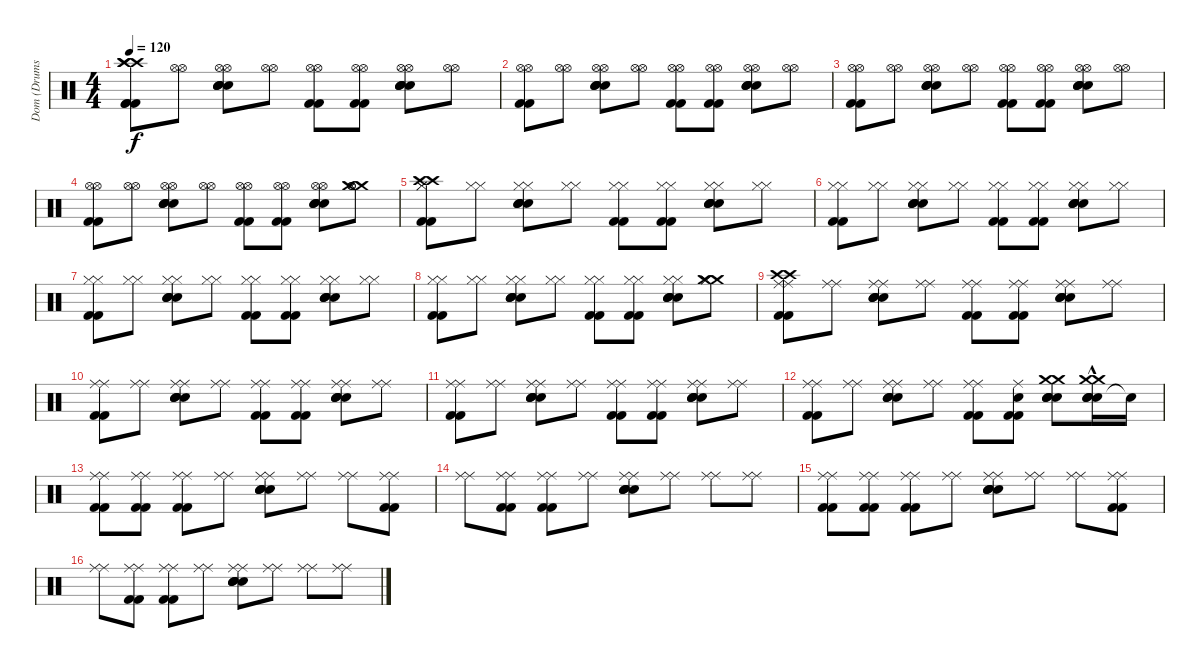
\track ("Dom (Drums)" "Dom (Drums") {instrument percussion}
\staff {score}
\articulation defaults
\ts (4 4)
\tempo 120
\clef neutral
\ks c
("Crash high (hit)" "Crash high (hit)" "Crash high (hit)" "Kick (hit) 2" "Kick (hit) 2" "Kick (hit) 2").8{dy f} ("Hi-Hat (open)" "Hi-Hat (open)").8 ("Hi-Hat (open)" "Snare (hit) 2" "Snare (hit) 2" "Electric Snare (hit)" "Electric Snare (hit)" "Hi-Hat (open)").8 ("Hi-Hat (open)" "Hi-Hat (open)").8 ("Kick (hit) 2" "Kick (hit) 2" "Hi-Hat (open)" "Hi-Hat (open)").8 ("Kick (hit) 2" "Kick (hit) 2" "Hi-Hat (open)" "Hi-Hat (open)").8 ("Electric Snare (hit)" "Electric Snare (hit)" "Snare (hit) 2" "Snare (hit) 2" "Hi-Hat (open)" "Hi-Hat (open)").8 ("Hi-Hat (open)" "Hi-Hat (open)").8 |
("Kick (hit) 2" "Kick (hit) 2" "Hi-Hat (open)" "Hi-Hat (open)").8 ("Hi-Hat (open)" "Hi-Hat (open)").8 ("Snare (hit) 2" "Snare (hit) 2" "Electric Snare (hit)" "Electric Snare (hit)" "Hi-Hat (open)" "Hi-Hat (open)").8 ("Hi-Hat (open)" "Hi-Hat (open)").8 ("Kick (hit) 2" "Kick (hit) 2" "Hi-Hat (open)" "Hi-Hat (open)").8 ("Kick (hit) 2" "Kick (hit) 2" "Hi-Hat (open)" "Hi-Hat (open)").8 ("Electric Snare (hit)" "Electric Snare (hit)" "Snare (hit) 2" "Snare (hit) 2" "Hi-Hat (open)" "Hi-Hat (open)").8 ("Hi-Hat (open)" "Hi-Hat (open)").8 |
("Kick (hit) 2" "Kick (hit) 2" "Hi-Hat (open)" "Hi-Hat (open)").8 ("Hi-Hat (open)" "Hi-Hat (open)").8 ("Snare (hit) 2" "Snare (hit) 2" "Electric Snare (hit)" "Electric Snare (hit)" "Hi-Hat (open)" "Hi-Hat (open)").8 ("Hi-Hat (open)" "Hi-Hat (open)").8 ("Kick (hit) 2" "Kick (hit) 2" "Hi-Hat (open)" "Hi-Hat (open)").8 ("Kick (hit) 2" "Kick (hit) 2" "Hi-Hat (open)" "Hi-Hat (open)").8 ("Electric Snare (hit)" "Electric Snare (hit)" "Snare (hit) 2" "Snare (hit) 2" "Hi-Hat (open)" "Hi-Hat (open)").8 ("Hi-Hat (open)" "Hi-Hat (open)").8 |
("Kick (hit) 2" "Kick (hit) 2" "Hi-Hat (open)" "Hi-Hat (open)").8 ("Hi-Hat (open)" "Hi-Hat (open)").8 ("Snare (hit) 2" "Snare (hit) 2" "Electric Snare (hit)" "Electric Snare (hit)" "Hi-Hat (open)" "Hi-Hat (open)").8 ("Hi-Hat (open)" "Hi-Hat (open)").8 ("Kick (hit) 2" "Kick (hit) 2" "Hi-Hat (open)" "Hi-Hat (open)").8 ("Kick (hit) 2" "Kick (hit) 2" "Hi-Hat (open)" "Hi-Hat (open)").8 ("Electric Snare (hit)" "Electric Snare (hit)" "Snare (hit) 2" "Snare (hit) 2" "Hi-Hat (open)" "Hi-Hat (open)").8 ("Crash medium (hit)" "Crash medium (hit)" "Hi-Hat (open)" "Hi-Hat (open)").8 |
("Crash high (hit)" "Crash high (hit)" "Kick (hit) 2" "Kick (hit) 2" "Hi-Hat (closed)" "Hi-Hat (closed)").8 ("Hi-Hat (closed)" "Hi-Hat (closed)").8 ("Snare (hit) 2" "Snare (hit) 2" "Electric Snare (hit)" "Electric Snare (hit)" "Hi-Hat (closed)" "Hi-Hat (closed)").8 ("Hi-Hat (closed)" "Hi-Hat (closed)").8 ("Kick (hit) 2" "Kick (hit) 2" "Hi-Hat (closed)" "Hi-Hat (closed)").8 ("Kick (hit) 2" "Kick (hit) 2" "Hi-Hat (closed)" "Hi-Hat (closed)").8 ("Snare (hit) 2" "Snare (hit) 2" "Electric Snare (hit)" "Electric Snare (hit)" "Hi-Hat (closed)" "Hi-Hat (closed)").8 ("Hi-Hat (closed)" "Hi-Hat (closed)").8 |
("Kick (hit) 2" "Kick (hit) 2" "Hi-Hat (closed)" "Hi-Hat (closed)").8 ("Hi-Hat (closed)" "Hi-Hat (closed)").8 ("Snare (hit) 2" "Snare (hit) 2" "Electric Snare (hit)" "Electric Snare (hit)" "Hi-Hat (closed)" "Hi-Hat (closed)").8 ("Hi-Hat (closed)" "Hi-Hat (closed)").8 ("Kick (hit) 2" "Kick (hit) 2" "Hi-Hat (closed)" "Hi-Hat (closed)").8 ("Kick (hit) 2" "Kick (hit) 2" "Hi-Hat (closed)" "Hi-Hat (closed)").8 ("Snare (hit) 2" "Snare (hit) 2" "Electric Snare (hit)" "Electric Snare (hit)" "Hi-Hat (closed)" "Hi-Hat (closed)").8 ("Hi-Hat (closed)" "Hi-Hat (closed)").8 |
("Kick (hit) 2" "Kick (hit) 2" "Hi-Hat (closed)" "Hi-Hat (closed)").8 ("Hi-Hat (closed)" "Hi-Hat (closed)").8 ("Snare (hit) 2" "Snare (hit) 2" "Electric Snare (hit)" "Electric Snare (hit)" "Hi-Hat (closed)" "Hi-Hat (closed)").8 ("Hi-Hat (closed)" "Hi-Hat (closed)").8 ("Kick (hit) 2" "Kick (hit) 2" "Hi-Hat (closed)" "Hi-Hat (closed)").8 ("Kick (hit) 2" "Kick (hit) 2" "Hi-Hat (closed)" "Hi-Hat (closed)").8 ("Snare (hit) 2" "Snare (hit) 2" "Electric Snare (hit)" "Electric Snare (hit)" "Hi-Hat (closed)" "Hi-Hat (closed)").8 ("Hi-Hat (closed)" "Hi-Hat (closed)").8 |
("Kick (hit) 2" "Kick (hit) 2" "Hi-Hat (closed)" "Hi-Hat (closed)").8 ("Hi-Hat (closed)" "Hi-Hat (closed)").8 ("Snare (hit) 2" "Snare (hit) 2" "Electric Snare (hit)" "Electric Snare (hit)" "Hi-Hat (closed)" "Hi-Hat (closed)").8 ("Hi-Hat (closed)" "Hi-Hat (closed)").8 ("Kick (hit) 2" "Kick (hit) 2" "Hi-Hat (closed)" "Hi-Hat (closed)").8 ("Kick (hit) 2" "Kick (hit) 2" "Hi-Hat (closed)" "Hi-Hat (closed)").8 ("Snare (hit) 2" "Snare (hit) 2" "Electric Snare (hit)" "Electric Snare (hit)" "Hi-Hat (closed)" "Hi-Hat (closed)").8 ("Crash medium (hit)" "Crash medium (hit)" "Hi-Hat (closed)" "Hi-Hat (closed)").8 |
("Crash high (hit)" "Kick (hit) 2" "Kick (hit) 2" "Crash high (hit)" "Ride (middle)" "Ride (middle)").8 ("Ride (middle)" "Ride (middle)").8 ("Snare (hit) 2" "Snare (hit) 2" "Electric Snare (hit)" "Electric Snare (hit)" "Ride (middle)" "Ride (middle)").8 ("Ride (middle)" "Ride (middle)").8 ("Kick (hit) 2" "Kick (hit) 2" "Ride (middle)" "Ride (middle)").8 ("Kick (hit) 2" "Kick (hit) 2" "Ride (middle)" "Ride (middle)").8 ("Snare (hit) 2" "Snare (hit) 2" "Electric Snare (hit)" "Electric Snare (hit)" "Ride (middle)" "Ride (middle)").8 ("Ride (middle)" "Ride (middle)").8 |
("Kick (hit) 2" "Kick (hit) 2" "Ride (middle)" "Ride (middle)").8 ("Ride (middle)" "Ride (middle)").8 ("Snare (hit) 2" "Snare (hit) 2" "Electric Snare (hit)" "Electric Snare (hit)" "Ride (middle)" "Ride (middle)").8 ("Ride (middle)" "Ride (middle)").8 ("Kick (hit) 2" "Kick (hit) 2" "Ride (middle)" "Ride (middle)").8 ("Kick (hit) 2" "Kick (hit) 2" "Ride (middle)" "Ride (middle)").8 ("Snare (hit) 2" "Snare (hit) 2" "Electric Snare (hit)" "Electric Snare (hit)" "Ride (middle)" "Ride (middle)").8 ("Ride (middle)" "Ride (middle)").8 |
("Kick (hit) 2" "Kick (hit) 2" "Ride (middle)" "Ride (middle)").8 ("Ride (middle)" "Ride (middle)").8 ("Snare (hit) 2" "Snare (hit) 2" "Electric Snare (hit)" "Electric Snare (hit)" "Ride (middle)" "Ride (middle)").8 ("Ride (middle)" "Ride (middle)").8 ("Kick (hit) 2" "Kick (hit) 2" "Ride (middle)" "Ride (middle)").8 ("Kick (hit) 2" "Kick (hit) 2" "Ride (middle)" "Ride (middle)").8 ("Snare (hit) 2" "Snare (hit) 2" "Electric Snare (hit)" "Electric Snare (hit)" "Ride (middle)" "Ride (middle)").8 ("Ride (middle)" "Ride (middle)").8 |
("Kick (hit) 2" "Kick (hit) 2" "Ride (middle)" "Ride (middle)").8 ("Ride (middle)" "Ride (middle)").8 ("Snare (hit) 2" "Snare (hit) 2" "Electric Snare (hit)" "Electric Snare (hit)" "Ride (middle)" "Ride (middle)").8 ("Ride (middle)" "Ride (middle)").8 ("Kick (hit) 2" "Kick (hit) 2" "Ride (middle)" "Ride (middle)").8 ("Kick (hit) 2" "Kick (hit) 2" "Ride (middle)" "Snare (hit)").8 ("Snare (hit) 2" "Snare (hit) 2" "Electric Snare (hit)" "Electric Snare (hit)" "Crash medium (hit)" "Crash medium (hit)").8 ("Snare (hit) 2" "Snare (hit) 2" "Electric Snare (hit)" "Electric Snare (hit)" "Crash medium (hit)" "Crash medium (hit)"{hac}).16 "Snare (hit)"{t}.16 |
("Kick (hit) 2" "Kick (hit) 2" "Ride (middle)" "Ride (middle)").8 ("Kick (hit) 2" "Kick (hit) 2" "Ride (middle)" "Ride (middle)").8 ("Kick (hit) 2" "Kick (hit) 2" "Ride (middle)" "Ride (middle)").8 ("Ride (middle)" "Ride (middle)").8 ("Electric Snare (hit)" "Electric Snare (hit)" "Snare (hit) 2" "Snare (hit) 2" "Ride (middle)" "Ride (middle)").8 ("Ride (middle)" "Ride (middle)").8 ("Ride (middle)" "Ride (middle)").8 ("Kick (hit) 2" "Kick (hit) 2" "Ride (middle)" "Ride (middle)").8 |
("Ride (middle)" "Ride (middle)").8 ("Kick (hit) 2" "Kick (hit) 2" "Ride (middle)" "Ride (middle)").8 ("Kick (hit) 2" "Kick (hit) 2" "Ride (middle)" "Ride (middle)").8 ("Ride (middle)" "Ride (middle)").8 ("Electric Snare (hit)" "Electric Snare (hit)" "Snare (hit) 2" "Snare (hit) 2" "Ride (middle)" "Ride (middle)").8 ("Ride (middle)" "Ride (middle)").8 ("Ride (middle)" "Ride (middle)").8 ("Ride (middle)" "Ride (middle)").8 |
("Kick (hit) 2" "Kick (hit) 2" "Ride (middle)" "Ride (middle)").8 ("Kick (hit) 2" "Kick (hit) 2" "Ride (middle)" "Ride (middle)").8 ("Kick (hit) 2" "Kick (hit) 2" "Ride (middle)" "Ride (middle)").8 ("Ride (middle)" "Ride (middle)").8 ("Electric Snare (hit)" "Electric Snare (hit)" "Snare (hit) 2" "Snare (hit) 2" "Ride (middle)" "Ride (middle)").8 ("Ride (middle)" "Ride (middle)").8 ("Ride (middle)" "Ride (middle)").8 ("Kick (hit) 2" "Kick (hit) 2" "Ride (middle)" "Ride (middle)").8 |
("Ride (middle)" "Ride (middle)").8 ("Kick (hit) 2" "Kick (hit) 2" "Ride (middle)" "Ride (middle)").8 ("Kick (hit) 2" "Kick (hit) 2" "Ride (middle)" "Ride (middle)").8 ("Ride (middle)" "Ride (middle)").8 ("Electric Snare (hit)" "Electric Snare (hit)" "Snare (hit) 2" "Snare (hit) 2" "Ride (middle)" "Ride (middle)").8 ("Ride (middle)" "Ride (middle)").8 ("Ride (middle)" "Ride (middle)").8 ("Ride (middle)" "Ride (middle)").8
